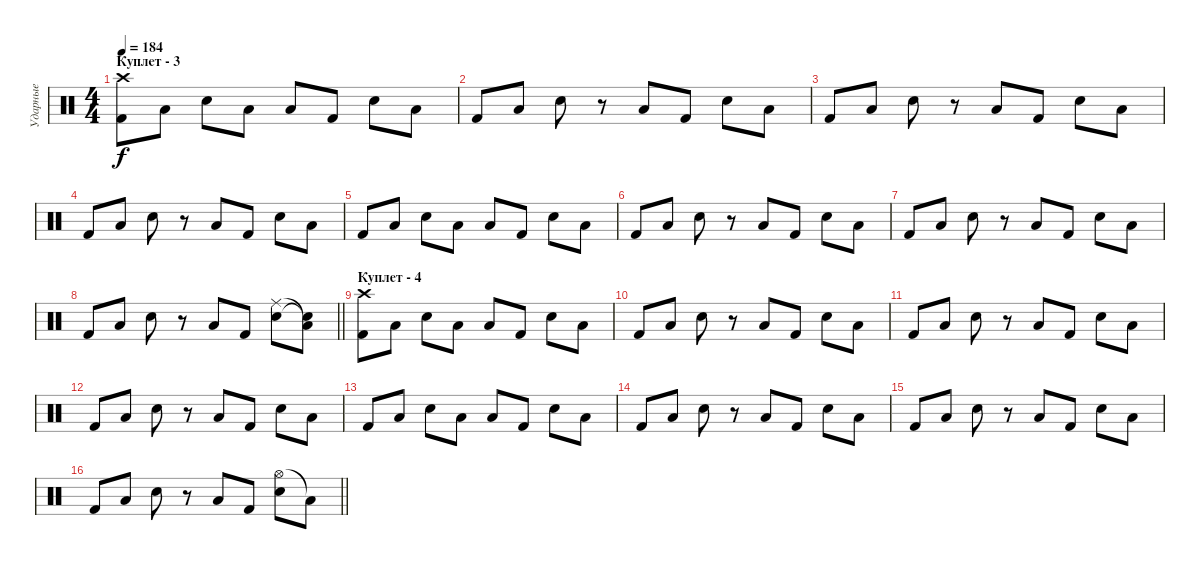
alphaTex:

\track ("Ударные" "Ударные") {instrument percussion}
\staff {score}
\articulation defaults
\ts (4 4)
\section ("" "Куплет - 3")
\tempo 184
\clef neutral
\ks c
("Crash high (hit)" "Kick (hit) 2").8{dy f} "Low Tom (hit)".8 "Snare (hit) 2".8 "Low Floor Tom (hit)".8 "Low Tom (hit)".8 "Kick (hit) 2".8 "Snare (hit) 2".8 "Low Tom (hit)".8 |
"Kick (hit) 2".8 "Low Tom (hit)".8 "Snare (hit) 2".8 r.8 "Low Tom (hit)".8 "Kick (hit) 2".8 "Snare (hit) 2".8 "Low Tom (hit)".8 |
"Kick (hit) 2".8 "Low Tom (hit)".8 "Snare (hit) 2".8 r.8 "Low Tom (hit)".8 "Kick (hit) 2".8 "Snare (hit) 2".8 "Low Tom (hit)".8 |
"Kick (hit) 2".8 "Low Tom (hit)".8 "Snare (hit) 2".8 r.8 "Low Tom (hit)".8 "Kick (hit) 2".8 "Snare (hit) 2".8 "Low Tom (hit)".8 |
"Kick (hit) 2".8 "Low Tom (hit)".8 "Snare (hit) 2".8 "Low Floor Tom (hit)".8 "Low Tom (hit)".8 "Kick (hit) 2".8 "Snare (hit) 2".8 "Low Tom (hit)".8 |
"Kick (hit) 2".8 "Low Tom (hit)".8 "Snare (hit) 2".8 r.8 "Low Tom (hit)".8 "Kick (hit) 2".8 "Snare (hit) 2".8 "Low Tom (hit)".8 |
"Kick (hit) 2".8 "Low Tom (hit)".8 "Snare (hit) 2".8 r.8 "Low Tom (hit)".8 "Kick (hit) 2".8 "Snare (hit) 2".8 "Low Tom (hit)".8 |
\barLineRight lightlight "Kick (hit) 2".8 "Low Tom (hit)".8 "Snare (hit) 2".8
r.8 "Low Tom (hit)".8 "Kick (hit) 2".8 ("Ride (middle)" "Snare (hit) 2").8 ("Low Tom (hit)"{t} "Snare (hit) 2"{t}).8 |
\section ("" "Куплет - 4")
("Crash high (hit)" "Kick (hit) 2").8 "Low Tom (hit)".8 "Snare (hit) 2".8 "Low Floor Tom (hit)".8 "Low Tom (hit)".8 "Kick (hit) 2".8 "Snare (hit) 2".8 "Low Tom (hit)".8 |
"Kick (hit) 2".8 "Low Tom (hit)".8 "Snare (hit) 2".8 r.8 "Low Tom (hit)".8 "Kick (hit) 2".8 "Snare (hit) 2".8 "Low Tom (hit)".8 |
"Kick (hit) 2".8 "Low Tom (hit)".8 "Snare (hit) 2".8 r.8 "Low Tom (hit)".8 "Kick (hit) 2".8 "Snare (hit) 2".8 "Low Tom (hit)".8 |
"Kick (hit) 2".8 "Low Tom (hit)".8 "Snare (hit) 2".8 r.8 "Low Tom (hit)".8 "Kick (hit) 2".8 "Snare (hit) 2".8 "Low Tom (hit)".8 |
"Kick (hit) 2".8 "Low Tom (hit)".8 "Snare (hit) 2".8 "Low Floor Tom (hit)".8 "Low Tom (hit)".8 "Kick (hit) 2".8 "Snare (hit) 2".8 "Low Tom (hit)".8 |
"Kick (hit) 2".8 "Low Tom (hit)".8 "Snare (hit) 2".8 r.8 "Low Tom (hit)".8 "Kick (hit) 2".8 "Snare (hit) 2".8 "Low Tom (hit)".8 |
"Kick (hit) 2".8 "Low Tom (hit)".8 "Snare (hit) 2".8 r.8 "Low Tom (hit)".8 "Kick (hit) 2".8 "Snare (hit) 2".8 "Low Tom (hit)".8 |
\barLineRight lightlight "Kick (hit) 2".8 "Low Tom (hit)".8 "Snare (hit) 2".8
r.8 "Low Tom (hit)".8 "Kick (hit) 2".8 ("Hi-Hat (open)" "Snare (hit) 2").8 "Low Tom (hit)"{t}.8
